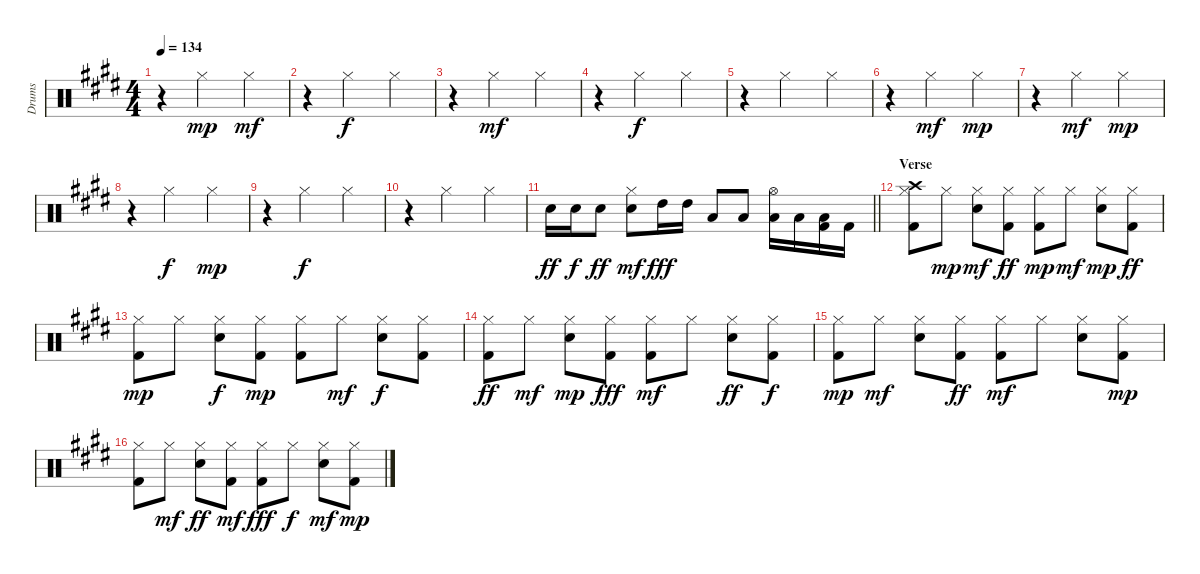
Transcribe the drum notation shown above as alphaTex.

\track ("Drums" "Drums") {instrument percussion}
\staff {score}
\articulation defaults
\ts (4 4)
\tempo 134
\clef neutral
\ks e
r.4{dy mf} "Hi-Hat (closed)".2{dy mp} "Hi-Hat (closed)".4{dy mf} |
r.4 "Hi-Hat (closed)".2{dy f} "Hi-Hat (closed)".4 |
r.4 "Hi-Hat (closed)".2{dy mf} "Hi-Hat (closed)".4 |
r.4 "Hi-Hat (closed)".2{dy f} "Hi-Hat (closed)".4 |
r.4 "Hi-Hat (closed)".2 "Hi-Hat (closed)".4 |
r.4 "Hi-Hat (closed)".2{dy mf} "Hi-Hat (closed)".4{dy mp} |
r.4 "Hi-Hat (closed)".2{dy mf} "Hi-Hat (closed)".4{dy mp} |
r.4 "Hi-Hat (closed)".2{dy f} "Hi-Hat (closed)".4{dy mp} |
r.4 "Hi-Hat (closed)".2{dy f} "Hi-Hat (closed)".4 |
r.4 "Hi-Hat (closed)".2 "Hi-Hat (closed)".4 |
\barLineRight lightlight "Snare (hit) 2".16{dy ff} "Snare (hit) 2".16{dy f} "Snare (hit) 2".8{dy ff}
("Snare (hit) 2" "Hi-Hat (closed)").8{dy mf} "High Tom (hit)".16{dy fff} "High Tom (hit)".16 "Low Tom (hit)".8 "Low Tom (hit)".8 ("Low Floor Tom (hit)" "Hi-Hat (open)").16 "Low Tom (hit)".16 ("Kick (hit) 2" "Low Floor Tom (hit)").16 "Kick (hit) 2".16 |
\section ("" "Verse")
("Kick (hit) 2" "Hi-Hat (closed)" "Crash high (hit)").8 "Hi-Hat (closed)".8{dy mp} ("Snare (hit) 2" "Hi-Hat (closed)").8{dy mf} ("Kick (hit) 2" "Hi-Hat (closed)").8{dy ff} ("Kick (hit) 2" "Hi-Hat (closed)").8{dy mp} "Hi-Hat (closed)".8{dy mf} ("Snare (hit) 2" "Hi-Hat (closed)").8{dy mp} ("Kick (hit) 2" "Hi-Hat (closed)").8{dy ff} |
("Kick (hit) 2" "Hi-Hat (closed)").8{dy mp} "Hi-Hat (closed)".8 ("Snare (hit) 2" "Hi-Hat (closed)").8{dy f} ("Kick (hit) 2" "Hi-Hat (closed)").8{dy mp} ("Kick (hit) 2" "Hi-Hat (closed)").8 "Hi-Hat (closed)".8{dy mf} ("Snare (hit) 2" "Hi-Hat (closed)").8{dy f} ("Kick (hit) 2" "Hi-Hat (closed)").8 |
("Kick (hit) 2" "Hi-Hat (closed)").8{dy ff} "Hi-Hat (closed)".8{dy mf} ("Snare (hit) 2" "Hi-Hat (closed)").8{dy mp} ("Kick (hit) 2" "Hi-Hat (closed)").8{dy fff} ("Kick (hit) 2" "Hi-Hat (closed)").8{dy mf} "Hi-Hat (closed)".8 ("Snare (hit) 2" "Hi-Hat (closed)").8{dy ff} ("Kick (hit) 2" "Hi-Hat (closed)").8{dy f} |
("Kick (hit) 2" "Hi-Hat (closed)").8{dy mp} "Hi-Hat (closed)".8{dy mf} ("Snare (hit) 2" "Hi-Hat (closed)").8 ("Kick (hit) 2" "Hi-Hat (closed)").8{dy ff} ("Kick (hit) 2" "Hi-Hat (closed)").8{dy mf} "Hi-Hat (closed)".8 ("Snare (hit) 2" "Hi-Hat (closed)").8 ("Kick (hit) 2" "Hi-Hat (closed)").8{dy mp} |
("Kick (hit) 2" "Hi-Hat (closed)").8 "Hi-Hat (closed)".8{dy mf} ("Snare (hit) 2" "Hi-Hat (closed)").8{dy ff} ("Kick (hit) 2" "Hi-Hat (closed)").8{dy mf} ("Kick (hit) 2" "Hi-Hat (closed)").8{dy fff} "Hi-Hat (closed)".8{dy f} ("Snare (hit) 2" "Hi-Hat (closed)").8{dy mf} ("Kick (hit) 2" "Hi-Hat (closed)").8{dy mp}
